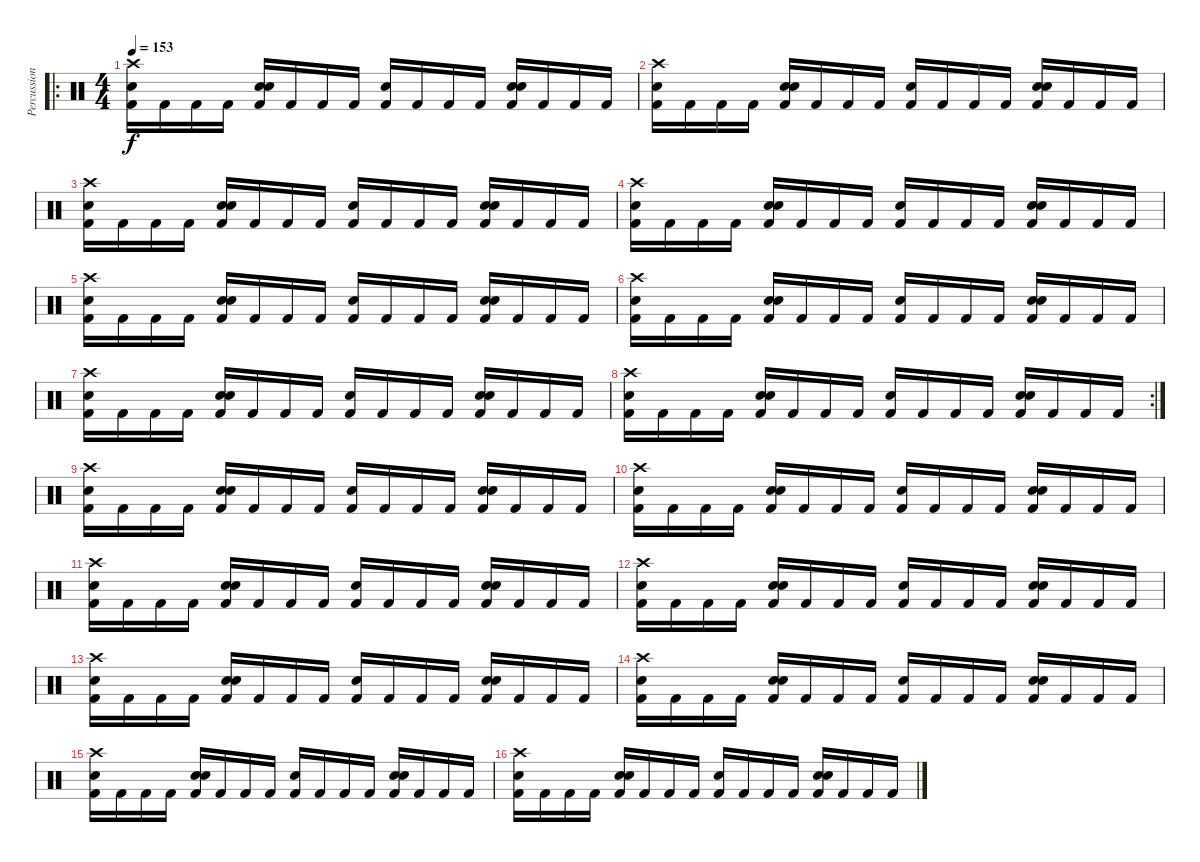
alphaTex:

\track ("Percussion" "Percussion") {instrument percussion}
\staff {score}
\articulation defaults
\ro
\ts (4 4)
\tempo 153
\clef neutral
\ks c
("Crash high (hit)" "Snare (hit) 2" "Kick (hit) 2").16{dy f} "Kick (hit) 2".16 "Kick (hit) 2".16 "Kick (hit) 2".16 ("Hand Clap (hit)" "Snare (hit) 2" "Kick (hit) 2").16 "Kick (hit) 2".16 "Kick (hit) 2".16 "Kick (hit) 2".16 ("Snare (hit) 2" "Kick (hit) 2").16 "Kick (hit) 2".16 "Kick (hit) 2".16 "Kick (hit) 2".16 ("Hand Clap (hit)" "Snare (hit) 2" "Kick (hit) 2").16 "Kick (hit) 2".16 "Kick (hit) 2".16 "Kick (hit) 2".16 |
("Crash high (hit)" "Snare (hit) 2" "Kick (hit) 2").16 "Kick (hit) 2".16 "Kick (hit) 2".16 "Kick (hit) 2".16 ("Hand Clap (hit)" "Snare (hit) 2" "Kick (hit) 2").16 "Kick (hit) 2".16 "Kick (hit) 2".16 "Kick (hit) 2".16 ("Snare (hit) 2" "Kick (hit) 2").16 "Kick (hit) 2".16 "Kick (hit) 2".16 "Kick (hit) 2".16 ("Hand Clap (hit)" "Snare (hit) 2" "Kick (hit) 2").16 "Kick (hit) 2".16 "Kick (hit) 2".16 "Kick (hit) 2".16 |
("Crash high (hit)" "Snare (hit) 2" "Kick (hit) 2").16 "Kick (hit) 2".16 "Kick (hit) 2".16 "Kick (hit) 2".16 ("Hand Clap (hit)" "Snare (hit) 2" "Kick (hit) 2").16 "Kick (hit) 2".16 "Kick (hit) 2".16 "Kick (hit) 2".16 ("Snare (hit) 2" "Kick (hit) 2").16 "Kick (hit) 2".16 "Kick (hit) 2".16 "Kick (hit) 2".16 ("Hand Clap (hit)" "Snare (hit) 2" "Kick (hit) 2").16 "Kick (hit) 2".16 "Kick (hit) 2".16 "Kick (hit) 2".16 |
("Crash high (hit)" "Snare (hit) 2" "Kick (hit) 2").16 "Kick (hit) 2".16 "Kick (hit) 2".16 "Kick (hit) 2".16 ("Hand Clap (hit)" "Snare (hit) 2" "Kick (hit) 2").16 "Kick (hit) 2".16 "Kick (hit) 2".16 "Kick (hit) 2".16 ("Snare (hit) 2" "Kick (hit) 2").16 "Kick (hit) 2".16 "Kick (hit) 2".16 "Kick (hit) 2".16 ("Hand Clap (hit)" "Snare (hit) 2" "Kick (hit) 2").16 "Kick (hit) 2".16 "Kick (hit) 2".16 "Kick (hit) 2".16 |
("Crash high (hit)" "Snare (hit) 2" "Kick (hit) 2").16 "Kick (hit) 2".16 "Kick (hit) 2".16 "Kick (hit) 2".16 ("Hand Clap (hit)" "Snare (hit) 2" "Kick (hit) 2").16 "Kick (hit) 2".16 "Kick (hit) 2".16 "Kick (hit) 2".16 ("Snare (hit) 2" "Kick (hit) 2").16 "Kick (hit) 2".16 "Kick (hit) 2".16 "Kick (hit) 2".16 ("Hand Clap (hit)" "Snare (hit) 2" "Kick (hit) 2").16 "Kick (hit) 2".16 "Kick (hit) 2".16 "Kick (hit) 2".16 |
("Crash high (hit)" "Snare (hit) 2" "Kick (hit) 2").16 "Kick (hit) 2".16 "Kick (hit) 2".16 "Kick (hit) 2".16 ("Hand Clap (hit)" "Snare (hit) 2" "Kick (hit) 2").16 "Kick (hit) 2".16 "Kick (hit) 2".16 "Kick (hit) 2".16 ("Snare (hit) 2" "Kick (hit) 2").16 "Kick (hit) 2".16 "Kick (hit) 2".16 "Kick (hit) 2".16 ("Hand Clap (hit)" "Snare (hit) 2" "Kick (hit) 2").16 "Kick (hit) 2".16 "Kick (hit) 2".16 "Kick (hit) 2".16 |
("Crash high (hit)" "Snare (hit) 2" "Kick (hit) 2").16 "Kick (hit) 2".16 "Kick (hit) 2".16 "Kick (hit) 2".16 ("Hand Clap (hit)" "Snare (hit) 2" "Kick (hit) 2").16 "Kick (hit) 2".16 "Kick (hit) 2".16 "Kick (hit) 2".16 ("Snare (hit) 2" "Kick (hit) 2").16 "Kick (hit) 2".16 "Kick (hit) 2".16 "Kick (hit) 2".16 ("Hand Clap (hit)" "Snare (hit) 2" "Kick (hit) 2").16 "Kick (hit) 2".16 "Kick (hit) 2".16 "Kick (hit) 2".16 |
\rc 2
("Crash high (hit)" "Snare (hit) 2" "Kick (hit) 2").16 "Kick (hit) 2".16 "Kick (hit) 2".16 "Kick (hit) 2".16 ("Hand Clap (hit)" "Snare (hit) 2" "Kick (hit) 2").16 "Kick (hit) 2".16 "Kick (hit) 2".16 "Kick (hit) 2".16 ("Snare (hit) 2" "Kick (hit) 2").16 "Kick (hit) 2".16 "Kick (hit) 2".16 "Kick (hit) 2".16 ("Hand Clap (hit)" "Snare (hit) 2" "Kick (hit) 2").16 "Kick (hit) 2".16 "Kick (hit) 2".16 "Kick (hit) 2".16 |
("Crash high (hit)" "Snare (hit) 2" "Kick (hit) 2").16 "Kick (hit) 2".16 "Kick (hit) 2".16 "Kick (hit) 2".16 ("Hand Clap (hit)" "Snare (hit) 2" "Kick (hit) 2").16 "Kick (hit) 2".16 "Kick (hit) 2".16 "Kick (hit) 2".16 ("Snare (hit) 2" "Kick (hit) 2").16 "Kick (hit) 2".16 "Kick (hit) 2".16 "Kick (hit) 2".16 ("Hand Clap (hit)" "Snare (hit) 2" "Kick (hit) 2").16 "Kick (hit) 2".16 "Kick (hit) 2".16 "Kick (hit) 2".16 |
("Crash high (hit)" "Snare (hit) 2" "Kick (hit) 2").16 "Kick (hit) 2".16 "Kick (hit) 2".16 "Kick (hit) 2".16 ("Hand Clap (hit)" "Snare (hit) 2" "Kick (hit) 2").16 "Kick (hit) 2".16 "Kick (hit) 2".16 "Kick (hit) 2".16 ("Snare (hit) 2" "Kick (hit) 2").16 "Kick (hit) 2".16 "Kick (hit) 2".16 "Kick (hit) 2".16 ("Hand Clap (hit)" "Snare (hit) 2" "Kick (hit) 2").16 "Kick (hit) 2".16 "Kick (hit) 2".16 "Kick (hit) 2".16 |
("Crash high (hit)" "Snare (hit) 2" "Kick (hit) 2").16 "Kick (hit) 2".16 "Kick (hit) 2".16 "Kick (hit) 2".16 ("Hand Clap (hit)" "Snare (hit) 2" "Kick (hit) 2").16 "Kick (hit) 2".16 "Kick (hit) 2".16 "Kick (hit) 2".16 ("Snare (hit) 2" "Kick (hit) 2").16 "Kick (hit) 2".16 "Kick (hit) 2".16 "Kick (hit) 2".16 ("Hand Clap (hit)" "Snare (hit) 2" "Kick (hit) 2").16 "Kick (hit) 2".16 "Kick (hit) 2".16 "Kick (hit) 2".16 |
("Crash high (hit)" "Snare (hit) 2" "Kick (hit) 2").16 "Kick (hit) 2".16 "Kick (hit) 2".16 "Kick (hit) 2".16 ("Hand Clap (hit)" "Snare (hit) 2" "Kick (hit) 2").16 "Kick (hit) 2".16 "Kick (hit) 2".16 "Kick (hit) 2".16 ("Snare (hit) 2" "Kick (hit) 2").16 "Kick (hit) 2".16 "Kick (hit) 2".16 "Kick (hit) 2".16 ("Hand Clap (hit)" "Snare (hit) 2" "Kick (hit) 2").16 "Kick (hit) 2".16 "Kick (hit) 2".16 "Kick (hit) 2".16 |
("Crash high (hit)" "Snare (hit) 2" "Kick (hit) 2").16 "Kick (hit) 2".16 "Kick (hit) 2".16 "Kick (hit) 2".16 ("Hand Clap (hit)" "Snare (hit) 2" "Kick (hit) 2").16 "Kick (hit) 2".16 "Kick (hit) 2".16 "Kick (hit) 2".16 ("Snare (hit) 2" "Kick (hit) 2").16 "Kick (hit) 2".16 "Kick (hit) 2".16 "Kick (hit) 2".16 ("Hand Clap (hit)" "Snare (hit) 2" "Kick (hit) 2").16 "Kick (hit) 2".16 "Kick (hit) 2".16 "Kick (hit) 2".16 |
("Crash high (hit)" "Snare (hit) 2" "Kick (hit) 2").16 "Kick (hit) 2".16 "Kick (hit) 2".16 "Kick (hit) 2".16 ("Hand Clap (hit)" "Snare (hit) 2" "Kick (hit) 2").16 "Kick (hit) 2".16 "Kick (hit) 2".16 "Kick (hit) 2".16 ("Snare (hit) 2" "Kick (hit) 2").16 "Kick (hit) 2".16 "Kick (hit) 2".16 "Kick (hit) 2".16 ("Hand Clap (hit)" "Snare (hit) 2" "Kick (hit) 2").16 "Kick (hit) 2".16 "Kick (hit) 2".16 "Kick (hit) 2".16 |
("Crash high (hit)" "Snare (hit) 2" "Kick (hit) 2").16 "Kick (hit) 2".16 "Kick (hit) 2".16 "Kick (hit) 2".16 ("Hand Clap (hit)" "Snare (hit) 2" "Kick (hit) 2").16 "Kick (hit) 2".16 "Kick (hit) 2".16 "Kick (hit) 2".16 ("Snare (hit) 2" "Kick (hit) 2").16 "Kick (hit) 2".16 "Kick (hit) 2".16 "Kick (hit) 2".16 ("Hand Clap (hit)" "Snare (hit) 2" "Kick (hit) 2").16 "Kick (hit) 2".16 "Kick (hit) 2".16 "Kick (hit) 2".16 |
("Crash high (hit)" "Snare (hit) 2" "Kick (hit) 2").16 "Kick (hit) 2".16 "Kick (hit) 2".16 "Kick (hit) 2".16 ("Hand Clap (hit)" "Snare (hit) 2" "Kick (hit) 2").16 "Kick (hit) 2".16 "Kick (hit) 2".16 "Kick (hit) 2".16 ("Snare (hit) 2" "Kick (hit) 2").16 "Kick (hit) 2".16 "Kick (hit) 2".16 "Kick (hit) 2".16 ("Hand Clap (hit)" "Snare (hit) 2" "Kick (hit) 2").16 "Kick (hit) 2".16 "Kick (hit) 2".16 "Kick (hit) 2".16
